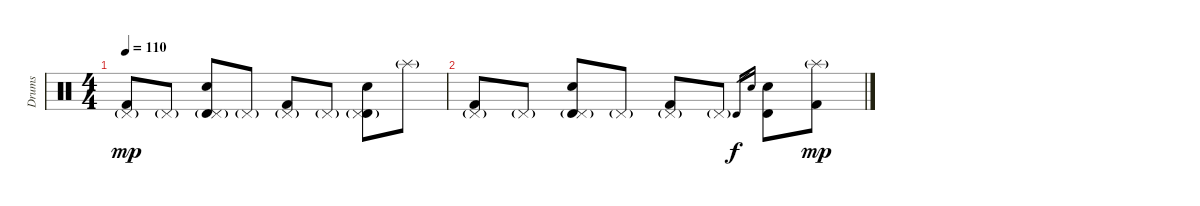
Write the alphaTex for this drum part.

\track ("Drums" "Drums") {instrument percussion}
\staff {score}
\articulation defaults
\ts (4 4)
\tempo 110
\clef neutral
\ks c
("Kick (hit) 2" "Pedal Hi-Hat (hit)"{g}).8{dy mp} "Pedal Hi-Hat (hit)"{g}.8 ("Timbale high (hit)" "Electric Snare (hit)" "Pedal Hi-Hat (hit)"{g}).8 "Pedal Hi-Hat (hit)"{g}.8 ("Kick (hit) 2" "Pedal Hi-Hat (hit)"{g}).8 "Pedal Hi-Hat (hit)"{g}.8 ("Timbale high (hit)" "Electric Snare (hit)" "Pedal Hi-Hat (hit)"{g}).8 "Splash (hit)"{g}.8 |
("Kick (hit) 2" "Pedal Hi-Hat (hit)"{g}).8 "Pedal Hi-Hat (hit)"{g}.8 ("Timbale high (hit)" "Electric Snare (hit)" "Pedal Hi-Hat (hit)"{g}).8 "Pedal Hi-Hat (hit)"{g}.8 ("Kick (hit) 2" "Pedal Hi-Hat (hit)"{g}).8 "Pedal Hi-Hat (hit)"{g}.8 "Timbale high (hit)".16{gr dy f} "Electric Snare (hit)".16{gr} ("Timbale high (hit)" "Electric Snare (hit)").8 ("Kick (hit) 2" "Splash (hit)"{g}).8{dy mp}
